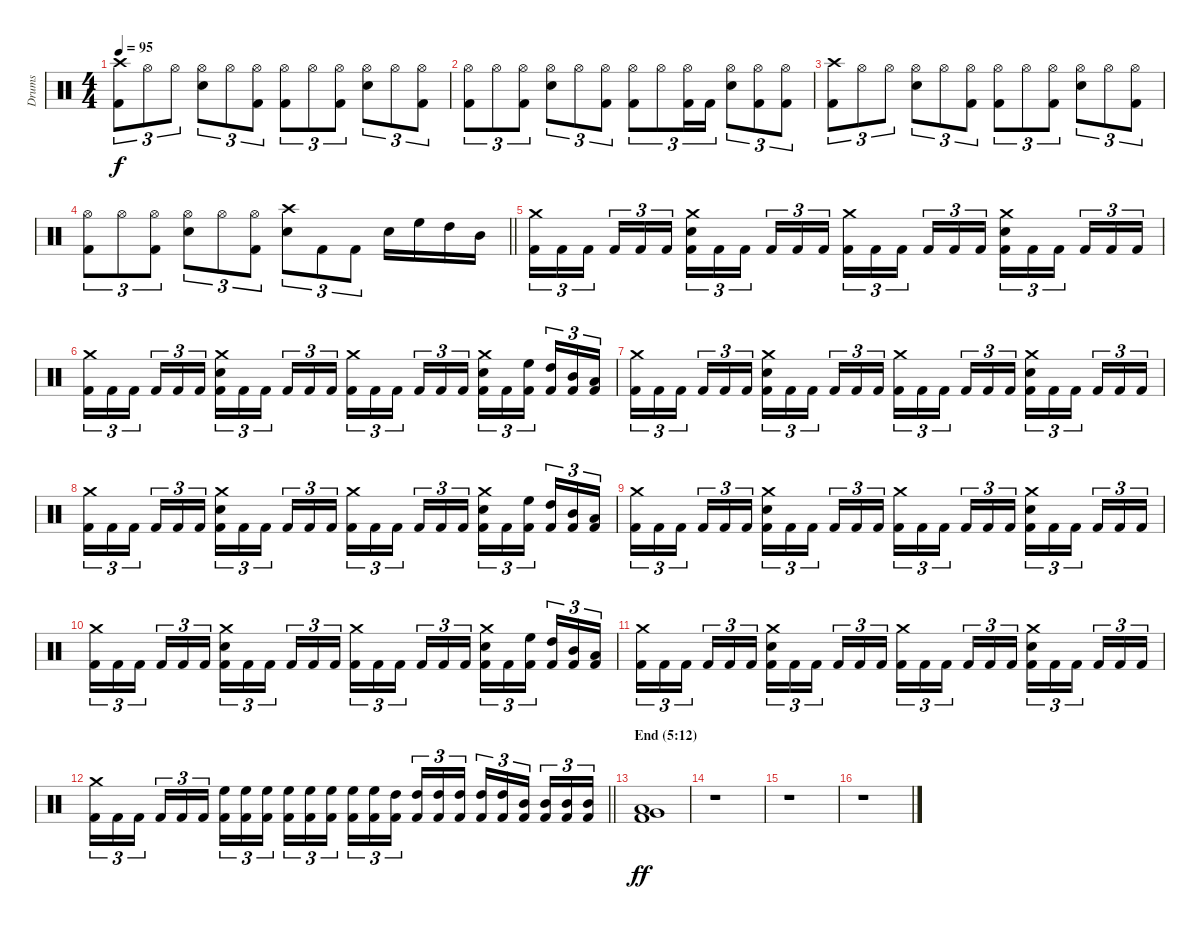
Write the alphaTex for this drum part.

\track ("Drums" "Drums") {instrument percussion}
\staff {score}
\articulation defaults
\ts (4 4)
\tempo 95
\clef neutral
\ks c
("Crash high (hit)" "Kick (hit) 2").8{tu (3 2) dy f} "Hi-Hat (open)".8{tu (3 2)} "Hi-Hat (open)".8{tu (3 2)} ("Hi-Hat (open)" "Snare (hit) 2").8{tu (3 2)} "Hi-Hat (open)".8{tu (3 2)} ("Hi-Hat (open)" "Kick (hit) 2").8{tu (3 2)} ("Hi-Hat (open)" "Kick (hit) 2").8{tu (3 2)} "Hi-Hat (open)".8{tu (3 2)} ("Hi-Hat (open)" "Kick (hit) 2").8{tu (3 2)} ("Hi-Hat (open)" "Snare (hit) 2").8{tu (3 2)} "Hi-Hat (open)".8{tu (3 2)} ("Hi-Hat (open)" "Kick (hit) 2").8{tu (3 2)} |
("Hi-Hat (open)" "Kick (hit) 2").8{tu (3 2)} "Hi-Hat (open)".8{tu (3 2)} ("Hi-Hat (open)" "Kick (hit) 2").8{tu (3 2)} ("Hi-Hat (open)" "Snare (hit) 2").8{tu (3 2)} "Hi-Hat (open)".8{tu (3 2)} ("Hi-Hat (open)" "Kick (hit) 2").8{tu (3 2)} ("Hi-Hat (open)" "Kick (hit) 2").8{tu (3 2)} "Hi-Hat (open)".8{tu (3 2)} ("Hi-Hat (open)" "Kick (hit) 2").16{tu (3 2)} "Kick (hit) 2".16{tu (3 2)} ("Hi-Hat (open)" "Snare (hit) 2").8{tu (3 2)} ("Hi-Hat (open)" "Kick (hit) 2").8{tu (3 2)} ("Hi-Hat (open)" "Kick (hit) 2").8{tu (3 2)} |
("Crash high (hit)" "Kick (hit) 2").8{tu (3 2)} "Hi-Hat (open)".8{tu (3 2)} "Hi-Hat (open)".8{tu (3 2)} ("Hi-Hat (open)" "Snare (hit) 2").8{tu (3 2)} "Hi-Hat (open)".8{tu (3 2)} ("Hi-Hat (open)" "Kick (hit) 2").8{tu (3 2)} ("Hi-Hat (open)" "Kick (hit) 2").8{tu (3 2)} "Hi-Hat (open)".8{tu (3 2)} ("Hi-Hat (open)" "Kick (hit) 2").8{tu (3 2)} ("Hi-Hat (open)" "Snare (hit) 2").8{tu (3 2)} "Hi-Hat (open)".8{tu (3 2)} ("Hi-Hat (open)" "Kick (hit) 2").8{tu (3 2)} |
\barLineRight lightlight
("Hi-Hat (open)" "Kick (hit) 2").8{tu (3 2)} "Hi-Hat (open)".8{tu (3 2)} ("Hi-Hat (open)" "Kick (hit) 2").8{tu (3 2)} ("Hi-Hat (open)" "Snare (hit) 2").8{tu (3 2)} "Hi-Hat (open)".8{tu (3 2)} ("Hi-Hat (open)" "Kick (hit) 2").8{tu (3 2)} ("Crash high (hit)" "Snare (hit) 2").8{tu (3 2)} "Kick (hit) 2".8{tu (3 2)} "Kick (hit) 2".8{tu (3 2)} "Snare (hit) 2".16 "High Floor Tom (hit)".16 "High Tom (hit)".16 "Mid Tom (hit)".16 |
\section ("" "")
("Crash medium (hit)" "Kick (hit) 2").16{tu (3 2)} "Kick (hit) 2".16{tu (3 2)} "Kick (hit) 2".16{tu (3 2) beam splitsecondary} "Kick (hit) 2".16{tu (3 2)} "Kick (hit) 2".16{tu (3 2)} "Kick (hit) 2".16{tu (3 2)} ("Crash medium (hit)" "Snare (hit) 2" "Kick (hit) 2").16{tu (3 2)} "Kick (hit) 2".16{tu (3 2)} "Kick (hit) 2".16{tu (3 2) beam splitsecondary} "Kick (hit) 2".16{tu (3 2)} "Kick (hit) 2".16{tu (3 2)} "Kick (hit) 2".16{tu (3 2)} ("Crash medium (hit)" "Kick (hit) 2").16{tu (3 2)} "Kick (hit) 2".16{tu (3 2)} "Kick (hit) 2".16{tu (3 2) beam splitsecondary} "Kick (hit) 2".16{tu (3 2)} "Kick (hit) 2".16{tu (3 2)} "Kick (hit) 2".16{tu (3 2)} ("Crash medium (hit)" "Snare (hit) 2" "Kick (hit) 2").16{tu (3 2)} "Kick (hit) 2".16{tu (3 2)} "Kick (hit) 2".16{tu (3 2) beam splitsecondary} "Kick (hit) 2".16{tu (3 2)} "Kick (hit) 2".16{tu (3 2)} "Kick (hit) 2".16{tu (3 2)} |
("Crash medium (hit)" "Kick (hit) 2").16{tu (3 2)} "Kick (hit) 2".16{tu (3 2)} "Kick (hit) 2".16{tu (3 2) beam splitsecondary} "Kick (hit) 2".16{tu (3 2)} "Kick (hit) 2".16{tu (3 2)} "Kick (hit) 2".16{tu (3 2)} ("Crash medium (hit)" "Snare (hit) 2" "Kick (hit) 2").16{tu (3 2)} "Kick (hit) 2".16{tu (3 2)} "Kick (hit) 2".16{tu (3 2) beam splitsecondary} "Kick (hit) 2".16{tu (3 2)} "Kick (hit) 2".16{tu (3 2)} "Kick (hit) 2".16{tu (3 2)} ("Crash medium (hit)" "Kick (hit) 2").16{tu (3 2)} "Kick (hit) 2".16{tu (3 2)} "Kick (hit) 2".16{tu (3 2) beam splitsecondary} "Kick (hit) 2".16{tu (3 2)} "Kick (hit) 2".16{tu (3 2)} "Kick (hit) 2".16{tu (3 2)} ("Crash medium (hit)" "Snare (hit) 2" "Kick (hit) 2").16{tu (3 2)} "Kick (hit) 2".16{tu (3 2)} ("High Floor Tom (hit)" "Kick (hit) 2").16{tu (3 2) beam splitsecondary} ("High Tom (hit)" "Kick (hit) 2").16{tu (3 2)} ("Mid Tom (hit)" "Kick (hit) 2").16{tu (3 2)} ("Low Tom (hit)" "Kick (hit) 2").16{tu (3 2)} |
("Crash medium (hit)" "Kick (hit) 2").16{tu (3 2)} "Kick (hit) 2".16{tu (3 2)} "Kick (hit) 2".16{tu (3 2) beam splitsecondary} "Kick (hit) 2".16{tu (3 2)} "Kick (hit) 2".16{tu (3 2)} "Kick (hit) 2".16{tu (3 2)} ("Crash medium (hit)" "Snare (hit) 2" "Kick (hit) 2").16{tu (3 2)} "Kick (hit) 2".16{tu (3 2)} "Kick (hit) 2".16{tu (3 2) beam splitsecondary} "Kick (hit) 2".16{tu (3 2)} "Kick (hit) 2".16{tu (3 2)} "Kick (hit) 2".16{tu (3 2)} ("Crash medium (hit)" "Kick (hit) 2").16{tu (3 2)} "Kick (hit) 2".16{tu (3 2)} "Kick (hit) 2".16{tu (3 2) beam splitsecondary} "Kick (hit) 2".16{tu (3 2)} "Kick (hit) 2".16{tu (3 2)} "Kick (hit) 2".16{tu (3 2)} ("Crash medium (hit)" "Snare (hit) 2" "Kick (hit) 2").16{tu (3 2)} "Kick (hit) 2".16{tu (3 2)} "Kick (hit) 2".16{tu (3 2) beam splitsecondary} "Kick (hit) 2".16{tu (3 2)} "Kick (hit) 2".16{tu (3 2)} "Kick (hit) 2".16{tu (3 2)} |
("Crash medium (hit)" "Kick (hit) 2").16{tu (3 2)} "Kick (hit) 2".16{tu (3 2)} "Kick (hit) 2".16{tu (3 2) beam splitsecondary} "Kick (hit) 2".16{tu (3 2)} "Kick (hit) 2".16{tu (3 2)} "Kick (hit) 2".16{tu (3 2)} ("Crash medium (hit)" "Snare (hit) 2" "Kick (hit) 2").16{tu (3 2)} "Kick (hit) 2".16{tu (3 2)} "Kick (hit) 2".16{tu (3 2) beam splitsecondary} "Kick (hit) 2".16{tu (3 2)} "Kick (hit) 2".16{tu (3 2)} "Kick (hit) 2".16{tu (3 2)} ("Crash medium (hit)" "Kick (hit) 2").16{tu (3 2)} "Kick (hit) 2".16{tu (3 2)} "Kick (hit) 2".16{tu (3 2) beam splitsecondary} "Kick (hit) 2".16{tu (3 2)} "Kick (hit) 2".16{tu (3 2)} "Kick (hit) 2".16{tu (3 2)} ("Crash medium (hit)" "Snare (hit) 2" "Kick (hit) 2").16{tu (3 2)} "Kick (hit) 2".16{tu (3 2)} ("High Floor Tom (hit)" "Kick (hit) 2").16{tu (3 2) beam splitsecondary} ("High Tom (hit)" "Kick (hit) 2").16{tu (3 2)} ("Mid Tom (hit)" "Kick (hit) 2").16{tu (3 2)} ("Low Tom (hit)" "Kick (hit) 2").16{tu (3 2)} |
("Crash medium (hit)" "Kick (hit) 2").16{tu (3 2)} "Kick (hit) 2".16{tu (3 2)} "Kick (hit) 2".16{tu (3 2) beam splitsecondary} "Kick (hit) 2".16{tu (3 2)} "Kick (hit) 2".16{tu (3 2)} "Kick (hit) 2".16{tu (3 2)} ("Crash medium (hit)" "Snare (hit) 2" "Kick (hit) 2").16{tu (3 2)} "Kick (hit) 2".16{tu (3 2)} "Kick (hit) 2".16{tu (3 2) beam splitsecondary} "Kick (hit) 2".16{tu (3 2)} "Kick (hit) 2".16{tu (3 2)} "Kick (hit) 2".16{tu (3 2)} ("Crash medium (hit)" "Kick (hit) 2").16{tu (3 2)} "Kick (hit) 2".16{tu (3 2)} "Kick (hit) 2".16{tu (3 2) beam splitsecondary} "Kick (hit) 2".16{tu (3 2)} "Kick (hit) 2".16{tu (3 2)} "Kick (hit) 2".16{tu (3 2)} ("Crash medium (hit)" "Snare (hit) 2" "Kick (hit) 2").16{tu (3 2)} "Kick (hit) 2".16{tu (3 2)} "Kick (hit) 2".16{tu (3 2) beam splitsecondary} "Kick (hit) 2".16{tu (3 2)} "Kick (hit) 2".16{tu (3 2)} "Kick (hit) 2".16{tu (3 2)} |
("Crash medium (hit)" "Kick (hit) 2").16{tu (3 2)} "Kick (hit) 2".16{tu (3 2)} "Kick (hit) 2".16{tu (3 2) beam splitsecondary} "Kick (hit) 2".16{tu (3 2)} "Kick (hit) 2".16{tu (3 2)} "Kick (hit) 2".16{tu (3 2)} ("Crash medium (hit)" "Snare (hit) 2" "Kick (hit) 2").16{tu (3 2)} "Kick (hit) 2".16{tu (3 2)} "Kick (hit) 2".16{tu (3 2) beam splitsecondary} "Kick (hit) 2".16{tu (3 2)} "Kick (hit) 2".16{tu (3 2)} "Kick (hit) 2".16{tu (3 2)} ("Crash medium (hit)" "Kick (hit) 2").16{tu (3 2)} "Kick (hit) 2".16{tu (3 2)} "Kick (hit) 2".16{tu (3 2) beam splitsecondary} "Kick (hit) 2".16{tu (3 2)} "Kick (hit) 2".16{tu (3 2)} "Kick (hit) 2".16{tu (3 2)} ("Crash medium (hit)" "Snare (hit) 2" "Kick (hit) 2").16{tu (3 2)} "Kick (hit) 2".16{tu (3 2)} ("High Floor Tom (hit)" "Kick (hit) 2").16{tu (3 2) beam splitsecondary} ("High Tom (hit)" "Kick (hit) 2").16{tu (3 2)} ("Mid Tom (hit)" "Kick (hit) 2").16{tu (3 2)} ("Low Tom (hit)" "Kick (hit) 2").16{tu (3 2)} |
("Crash medium (hit)" "Kick (hit) 2").16{tu (3 2)} "Kick (hit) 2".16{tu (3 2)} "Kick (hit) 2".16{tu (3 2) beam splitsecondary} "Kick (hit) 2".16{tu (3 2)} "Kick (hit) 2".16{tu (3 2)} "Kick (hit) 2".16{tu (3 2)} ("Crash medium (hit)" "Snare (hit) 2" "Kick (hit) 2").16{tu (3 2)} "Kick (hit) 2".16{tu (3 2)} "Kick (hit) 2".16{tu (3 2) beam splitsecondary} "Kick (hit) 2".16{tu (3 2)} "Kick (hit) 2".16{tu (3 2)} "Kick (hit) 2".16{tu (3 2)} ("Crash medium (hit)" "Kick (hit) 2").16{tu (3 2)} "Kick (hit) 2".16{tu (3 2)} "Kick (hit) 2".16{tu (3 2) beam splitsecondary} "Kick (hit) 2".16{tu (3 2)} "Kick (hit) 2".16{tu (3 2)} "Kick (hit) 2".16{tu (3 2)} ("Crash medium (hit)" "Snare (hit) 2" "Kick (hit) 2").16{tu (3 2)} "Kick (hit) 2".16{tu (3 2)} "Kick (hit) 2".16{tu (3 2) beam splitsecondary} "Kick (hit) 2".16{tu (3 2)} "Kick (hit) 2".16{tu (3 2)} "Kick (hit) 2".16{tu (3 2)} |
\barLineRight lightlight
("Crash medium (hit)" "Kick (hit) 2").16{tu (3 2)} "Kick (hit) 2".16{tu (3 2)} "Kick (hit) 2".16{tu (3 2) beam splitsecondary} "Kick (hit) 2".16{tu (3 2)} "Kick (hit) 2".16{tu (3 2)} "Kick (hit) 2".16{tu (3 2)} ("High Floor Tom (hit)" "Kick (hit) 2").16{tu (3 2)} ("High Floor Tom (hit)" "Kick (hit) 2").16{tu (3 2)} ("High Floor Tom (hit)" "Kick (hit) 2").16{tu (3 2) beam splitsecondary} ("High Floor Tom (hit)" "Kick (hit) 2").16{tu (3 2)} ("High Floor Tom (hit)" "Kick (hit) 2").16{tu (3 2)} ("High Floor Tom (hit)" "Kick (hit) 2").16{tu (3 2)} ("High Floor Tom (hit)" "Kick (hit) 2").16{tu (3 2)} ("High Floor Tom (hit)" "Kick (hit) 2").16{tu (3 2)} ("High Tom (hit)" "Kick (hit) 2").16{tu (3 2) beam splitsecondary} ("High Tom (hit)" "Kick (hit) 2").16{tu (3 2)} ("High Tom (hit)" "Kick (hit) 2").16{tu (3 2)} ("High Tom (hit)" "Kick (hit) 2").16{tu (3 2)} ("High Tom (hit)" "Kick (hit) 2").16{tu (3 2)} ("High Tom (hit)" "Kick (hit) 2").16{tu (3 2)} ("Mid Tom (hit)" "Kick (hit) 2").16{tu (3 2) beam splitsecondary} ("Mid Tom (hit)" "Kick (hit) 2").16{tu (3 2)} ("Mid Tom (hit)" "Kick (hit) 2").16{tu (3 2)} ("Mid Tom (hit)" "Kick (hit) 2").16{tu (3 2)} |
\section ("" "End (5:12)")
("Very Low Tom (hit)" "Low Tom (hit)" "Kick (hit) 2").1{dy ff} |
r.1 |
r.1 |
r.1
